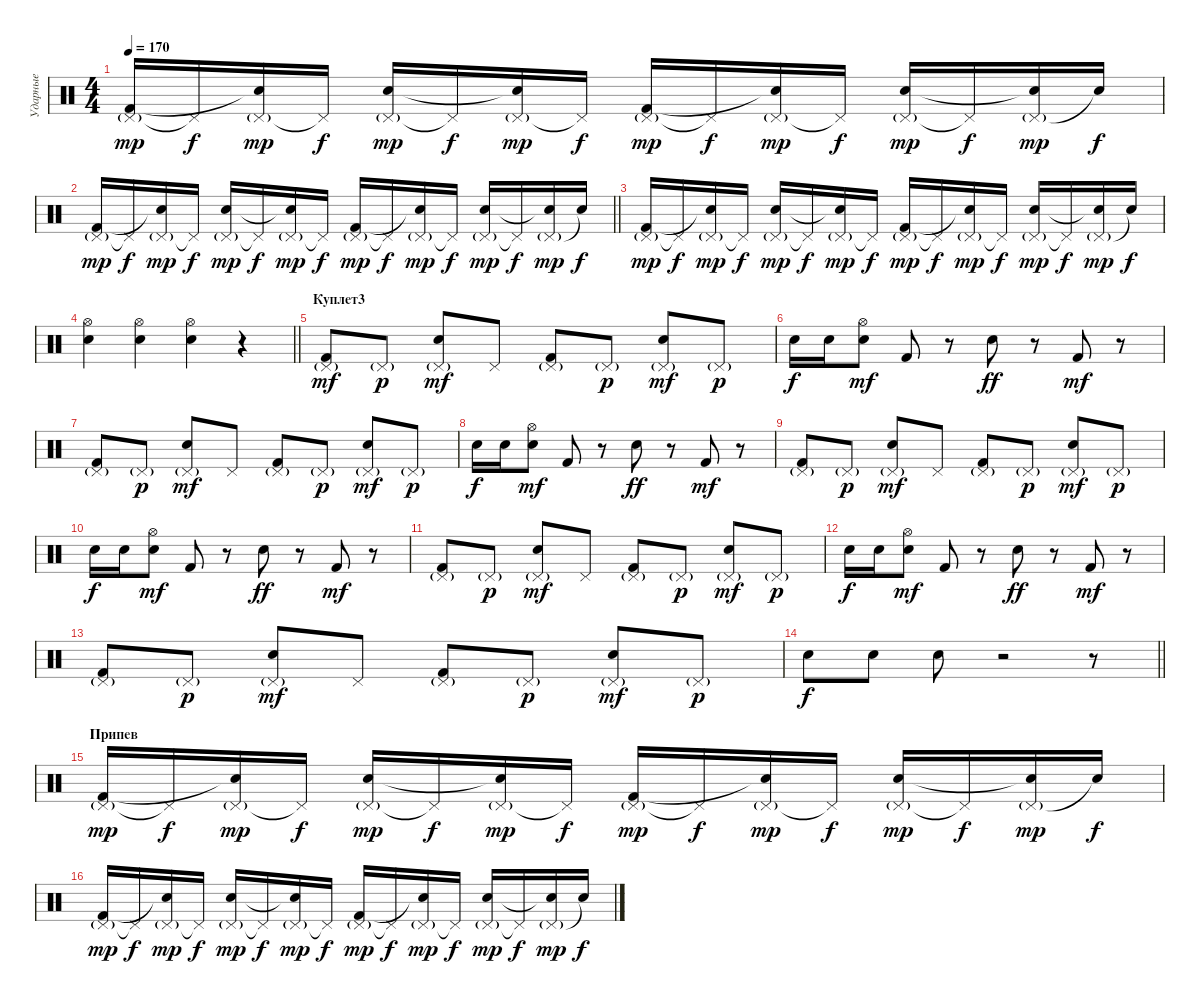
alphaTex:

\track ("Ударные" "Ударные") {instrument percussion}
\staff {score}
\articulation defaults
\ts (4 4)
\tempo 170
\clef neutral
\ks c
("Pedal Hi-Hat (hit)"{g} "Kick (hit) 2").16{dy mp} "Pedal Hi-Hat (hit)"{t}.16{dy f} ("Pedal Hi-Hat (hit)"{g} "Snare (hit)"{t}).16{dy mp} "Pedal Hi-Hat (hit)"{t}.16{dy f} ("Pedal Hi-Hat (hit)"{g} "Electric Snare (hit)").16{dy mp} "Pedal Hi-Hat (hit)"{t}.16{dy f} ("Pedal Hi-Hat (hit)"{g} "Snare (hit)"{t}).16{dy mp} "Pedal Hi-Hat (hit)"{t}.16{dy f} ("Pedal Hi-Hat (hit)"{g} "Kick (hit) 2").16{dy mp} "Pedal Hi-Hat (hit)"{t}.16{dy f} ("Pedal Hi-Hat (hit)"{g} "Snare (hit)"{t}).16{dy mp} "Pedal Hi-Hat (hit)"{t}.16{dy f} ("Pedal Hi-Hat (hit)"{g} "Electric Snare (hit)").16{dy mp} "Pedal Hi-Hat (hit)"{t}.16{dy f} ("Pedal Hi-Hat (hit)"{g} "Snare (hit)"{t}).16{dy mp} "Snare (hit)"{t}.16{dy f} |
\barLineRight lightlight
("Pedal Hi-Hat (hit)"{g} "Kick (hit) 2").16{dy mp} "Pedal Hi-Hat (hit)"{t}.16{dy f} ("Pedal Hi-Hat (hit)"{g} "Snare (hit)"{t}).16{dy mp} "Pedal Hi-Hat (hit)"{t}.16{dy f} ("Pedal Hi-Hat (hit)"{g} "Electric Snare (hit)").16{dy mp} "Pedal Hi-Hat (hit)"{t}.16{dy f} ("Pedal Hi-Hat (hit)"{g} "Snare (hit)"{t}).16{dy mp} "Pedal Hi-Hat (hit)"{t}.16{dy f} ("Pedal Hi-Hat (hit)"{g} "Kick (hit) 2").16{dy mp} "Pedal Hi-Hat (hit)"{t}.16{dy f} ("Pedal Hi-Hat (hit)"{g} "Snare (hit)"{t}).16{dy mp} "Pedal Hi-Hat (hit)"{t}.16{dy f} ("Pedal Hi-Hat (hit)"{g} "Electric Snare (hit)").16{dy mp} "Pedal Hi-Hat (hit)"{t}.16{dy f} ("Pedal Hi-Hat (hit)"{g} "Snare (hit)"{t}).16{dy mp} "Snare (hit)"{t}.16{dy f} |
("Pedal Hi-Hat (hit)"{g} "Kick (hit) 2").16{dy mp} "Pedal Hi-Hat (hit)"{t}.16{dy f} ("Pedal Hi-Hat (hit)"{g} "Snare (hit)"{t}).16{dy mp} "Pedal Hi-Hat (hit)"{t}.16{dy f} ("Pedal Hi-Hat (hit)"{g} "Electric Snare (hit)").16{dy mp} "Pedal Hi-Hat (hit)"{t}.16{dy f} ("Pedal Hi-Hat (hit)"{g} "Snare (hit)"{t}).16{dy mp} "Pedal Hi-Hat (hit)"{t}.16{dy f} ("Pedal Hi-Hat (hit)"{g} "Kick (hit) 2").16{dy mp} "Pedal Hi-Hat (hit)"{t}.16{dy f} ("Pedal Hi-Hat (hit)"{g} "Snare (hit)"{t}).16{dy mp} "Pedal Hi-Hat (hit)"{t}.16{dy f} ("Pedal Hi-Hat (hit)"{g} "Electric Snare (hit)").16{dy mp} "Pedal Hi-Hat (hit)"{t}.16{dy f} ("Pedal Hi-Hat (hit)"{g} "Snare (hit)"{t}).16{dy mp} "Snare (hit)"{t}.16{dy f} |
\barLineRight lightlight
("Hi-Hat (open)" "Electric Snare (hit)").4 ("Hi-Hat (open)" "Electric Snare (hit)").4 ("Hi-Hat (open)" "Electric Snare (hit)").4 r.4 |
\section ("" "Куплет3")
("Pedal Hi-Hat (hit)"{g} "Kick (hit) 2").8{dy mf} "Pedal Hi-Hat (hit)"{g}.8{dy p} ("Pedal Hi-Hat (hit)"{g} "Electric Snare (hit)").8{dy mf} "Pedal Hi-Hat (hit)".8 ("Pedal Hi-Hat (hit)"{g} "Kick (hit) 2").8 "Pedal Hi-Hat (hit)"{g}.8{dy p} ("Pedal Hi-Hat (hit)"{g} "Electric Snare (hit)").8{dy mf} "Pedal Hi-Hat (hit)"{g}.8{dy p} |
"Snare (hit) 2".16{dy f} "Snare (hit) 2".16 ("Hi-Hat (open)" "Electric Snare (hit)").8{dy mf} "Kick (hit) 2".8 r.8 "Electric Snare (hit)".8{dy ff} r.8 "Kick (hit) 2".8{dy mf} r.8 |
("Pedal Hi-Hat (hit)"{g} "Kick (hit) 2").8 "Pedal Hi-Hat (hit)"{g}.8{dy p} ("Pedal Hi-Hat (hit)"{g} "Electric Snare (hit)").8{dy mf} "Pedal Hi-Hat (hit)".8 ("Pedal Hi-Hat (hit)"{g} "Kick (hit) 2").8 "Pedal Hi-Hat (hit)"{g}.8{dy p} ("Pedal Hi-Hat (hit)"{g} "Electric Snare (hit)").8{dy mf} "Pedal Hi-Hat (hit)"{g}.8{dy p} |
"Snare (hit) 2".16{dy f} "Snare (hit) 2".16 ("Hi-Hat (open)" "Electric Snare (hit)").8{dy mf} "Kick (hit) 2".8 r.8 "Electric Snare (hit)".8{dy ff} r.8 "Kick (hit) 2".8{dy mf} r.8 |
("Pedal Hi-Hat (hit)"{g} "Kick (hit) 2").8 "Pedal Hi-Hat (hit)"{g}.8{dy p} ("Pedal Hi-Hat (hit)"{g} "Electric Snare (hit)").8{dy mf} "Pedal Hi-Hat (hit)".8 ("Pedal Hi-Hat (hit)"{g} "Kick (hit) 2").8 "Pedal Hi-Hat (hit)"{g}.8{dy p} ("Pedal Hi-Hat (hit)"{g} "Electric Snare (hit)").8{dy mf} "Pedal Hi-Hat (hit)"{g}.8{dy p} |
"Snare (hit) 2".16{dy f} "Snare (hit) 2".16 ("Hi-Hat (open)" "Electric Snare (hit)").8{dy mf} "Kick (hit) 2".8 r.8 "Electric Snare (hit)".8{dy ff} r.8 "Kick (hit) 2".8{dy mf} r.8 |
("Pedal Hi-Hat (hit)"{g} "Kick (hit) 2").8 "Pedal Hi-Hat (hit)"{g}.8{dy p} ("Pedal Hi-Hat (hit)"{g} "Electric Snare (hit)").8{dy mf} "Pedal Hi-Hat (hit)".8 ("Pedal Hi-Hat (hit)"{g} "Kick (hit) 2").8 "Pedal Hi-Hat (hit)"{g}.8{dy p} ("Pedal Hi-Hat (hit)"{g} "Electric Snare (hit)").8{dy mf} "Pedal Hi-Hat (hit)"{g}.8{dy p} |
"Snare (hit) 2".16{dy f} "Snare (hit) 2".16 ("Hi-Hat (open)" "Electric Snare (hit)").8{dy mf} "Kick (hit) 2".8 r.8 "Electric Snare (hit)".8{dy ff} r.8 "Kick (hit) 2".8{dy mf} r.8 |
("Pedal Hi-Hat (hit)"{g} "Kick (hit) 2").8 "Pedal Hi-Hat (hit)"{g}.8{dy p} ("Pedal Hi-Hat (hit)"{g} "Electric Snare (hit)").8{dy mf} "Pedal Hi-Hat (hit)".8 ("Pedal Hi-Hat (hit)"{g} "Kick (hit) 2").8 "Pedal Hi-Hat (hit)"{g}.8{dy p} ("Pedal Hi-Hat (hit)"{g} "Electric Snare (hit)").8{dy mf} "Pedal Hi-Hat (hit)"{g}.8{dy p} |
\barLineRight lightlight "Electric Snare (hit)".8{dy f} "Electric Snare (hit)".8 "Electric Snare (hit)".8
r.2 r.8 |
\section ("" "Припев")
("Pedal Hi-Hat (hit)"{g} "Kick (hit) 2").16{dy mp} "Pedal Hi-Hat (hit)"{t}.16{dy f} ("Pedal Hi-Hat (hit)"{g} "Snare (hit)"{t}).16{dy mp} "Pedal Hi-Hat (hit)"{t}.16{dy f} ("Pedal Hi-Hat (hit)"{g} "Electric Snare (hit)").16{dy mp} "Pedal Hi-Hat (hit)"{t}.16{dy f} ("Pedal Hi-Hat (hit)"{g} "Snare (hit)"{t}).16{dy mp} "Pedal Hi-Hat (hit)"{t}.16{dy f} ("Pedal Hi-Hat (hit)"{g} "Kick (hit) 2").16{dy mp} "Pedal Hi-Hat (hit)"{t}.16{dy f} ("Pedal Hi-Hat (hit)"{g} "Snare (hit)"{t}).16{dy mp} "Pedal Hi-Hat (hit)"{t}.16{dy f} ("Pedal Hi-Hat (hit)"{g} "Electric Snare (hit)").16{dy mp} "Pedal Hi-Hat (hit)"{t}.16{dy f} ("Pedal Hi-Hat (hit)"{g} "Snare (hit)"{t}).16{dy mp} "Snare (hit)"{t}.16{dy f} |
("Pedal Hi-Hat (hit)"{g} "Kick (hit) 2").16{dy mp} "Pedal Hi-Hat (hit)"{t}.16{dy f} ("Pedal Hi-Hat (hit)"{g} "Snare (hit)"{t}).16{dy mp} "Pedal Hi-Hat (hit)"{t}.16{dy f} ("Pedal Hi-Hat (hit)"{g} "Electric Snare (hit)").16{dy mp} "Pedal Hi-Hat (hit)"{t}.16{dy f} ("Pedal Hi-Hat (hit)"{g} "Snare (hit)"{t}).16{dy mp} "Pedal Hi-Hat (hit)"{t}.16{dy f} ("Pedal Hi-Hat (hit)"{g} "Kick (hit) 2").16{dy mp} "Pedal Hi-Hat (hit)"{t}.16{dy f} ("Pedal Hi-Hat (hit)"{g} "Snare (hit)"{t}).16{dy mp} "Pedal Hi-Hat (hit)"{t}.16{dy f} ("Pedal Hi-Hat (hit)"{g} "Electric Snare (hit)").16{dy mp} "Pedal Hi-Hat (hit)"{t}.16{dy f} ("Pedal Hi-Hat (hit)"{g} "Snare (hit)"{t}).16{dy mp} "Snare (hit)"{t}.16{dy f}
